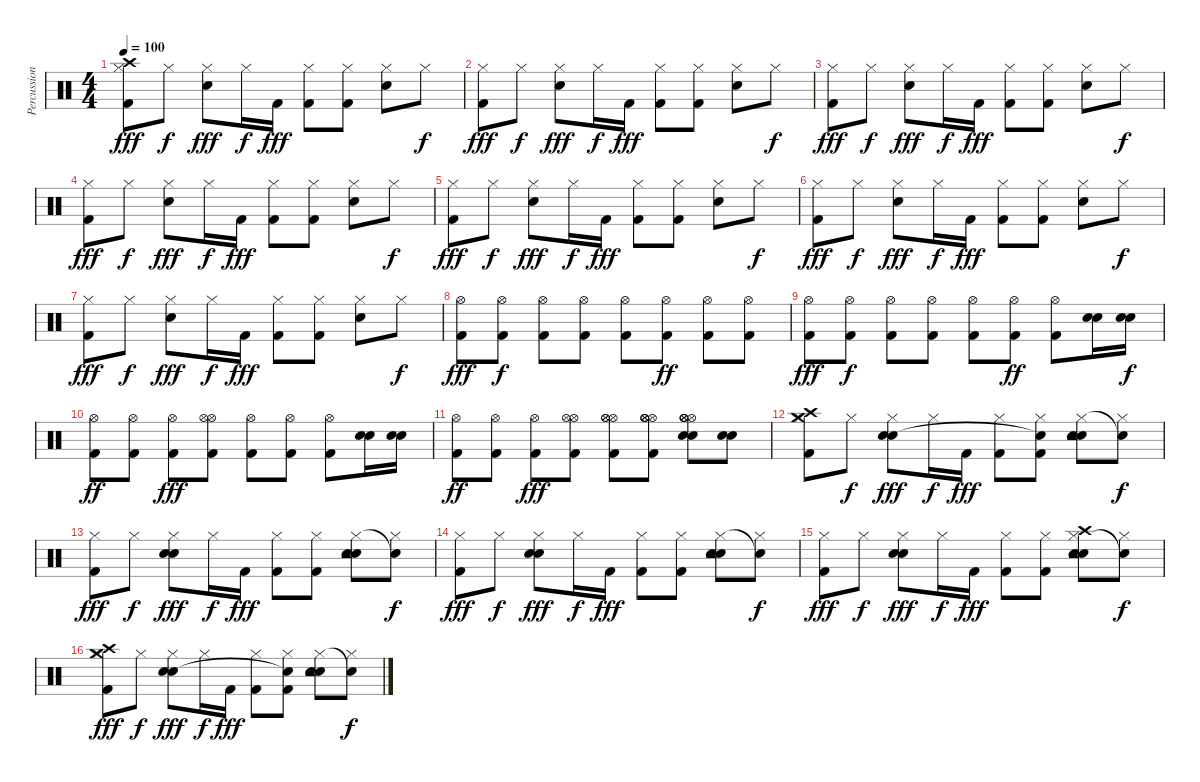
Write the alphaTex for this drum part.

\track ("Percussion" "Percussion") {instrument percussion}
\staff {score}
\articulation defaults
\ts (4 4)
\tempo 100
\clef neutral
\ks c
("Kick (hit) 2" "Hi-Hat (closed)" "Crash high (hit)").8{dy fff} "Hi-Hat (closed)".8{dy f} ("Electric Snare (hit)" "Hi-Hat (closed)").8{dy fff} "Hi-Hat (closed)".16{dy f} "Kick (hit) 2".16{dy fff} ("Kick (hit) 2" "Hi-Hat (closed)").8 ("Kick (hit) 2" "Hi-Hat (closed)").8 ("Electric Snare (hit)" "Hi-Hat (closed)").8 "Hi-Hat (closed)".8{dy f} |
("Kick (hit) 2" "Hi-Hat (closed)").8{dy fff} "Hi-Hat (closed)".8{dy f} ("Electric Snare (hit)" "Hi-Hat (closed)").8{dy fff} "Hi-Hat (closed)".16{dy f} "Kick (hit) 2".16{dy fff} ("Kick (hit) 2" "Hi-Hat (closed)").8 ("Kick (hit) 2" "Hi-Hat (closed)").8 ("Electric Snare (hit)" "Hi-Hat (closed)").8 "Hi-Hat (closed)".8{dy f} |
("Kick (hit) 2" "Hi-Hat (closed)").8{dy fff} "Hi-Hat (closed)".8{dy f} ("Electric Snare (hit)" "Hi-Hat (closed)").8{dy fff} "Hi-Hat (closed)".16{dy f} "Kick (hit) 2".16{dy fff} ("Kick (hit) 2" "Hi-Hat (closed)").8 ("Kick (hit) 2" "Hi-Hat (closed)").8 ("Electric Snare (hit)" "Hi-Hat (closed)").8 "Hi-Hat (closed)".8{dy f} |
("Kick (hit) 2" "Hi-Hat (closed)").8{dy fff} "Hi-Hat (closed)".8{dy f} ("Electric Snare (hit)" "Hi-Hat (closed)").8{dy fff} "Hi-Hat (closed)".16{dy f} "Kick (hit) 2".16{dy fff} ("Kick (hit) 2" "Hi-Hat (closed)").8 ("Kick (hit) 2" "Hi-Hat (closed)").8 ("Electric Snare (hit)" "Hi-Hat (closed)").8 "Hi-Hat (closed)".8{dy f} |
("Kick (hit) 2" "Hi-Hat (closed)").8{dy fff} "Hi-Hat (closed)".8{dy f} ("Electric Snare (hit)" "Hi-Hat (closed)").8{dy fff} "Hi-Hat (closed)".16{dy f} "Kick (hit) 2".16{dy fff} ("Kick (hit) 2" "Hi-Hat (closed)").8 ("Kick (hit) 2" "Hi-Hat (closed)").8 ("Electric Snare (hit)" "Hi-Hat (closed)").8 "Hi-Hat (closed)".8{dy f} |
("Kick (hit) 2" "Hi-Hat (closed)").8{dy fff} "Hi-Hat (closed)".8{dy f} ("Electric Snare (hit)" "Hi-Hat (closed)").8{dy fff} "Hi-Hat (closed)".16{dy f} "Kick (hit) 2".16{dy fff} ("Kick (hit) 2" "Hi-Hat (closed)").8 ("Kick (hit) 2" "Hi-Hat (closed)").8 ("Electric Snare (hit)" "Hi-Hat (closed)").8 "Hi-Hat (closed)".8{dy f} |
("Kick (hit) 2" "Hi-Hat (closed)").8{dy fff} "Hi-Hat (closed)".8{dy f} ("Electric Snare (hit)" "Hi-Hat (closed)").8{dy fff} "Hi-Hat (closed)".16{dy f} "Kick (hit) 2".16{dy fff} ("Kick (hit) 2" "Hi-Hat (closed)").8 ("Kick (hit) 2" "Hi-Hat (closed)").8 ("Electric Snare (hit)" "Hi-Hat (closed)").8 "Hi-Hat (closed)".8{dy f} |
("Kick (hit) 2" "Hi-Hat (open)").8{dy fff} ("Kick (hit) 2" "Hi-Hat (open)").8{dy f} ("Kick (hit) 2" "Hi-Hat (open)").8 ("Kick (hit) 2" "Hi-Hat (open)").8 ("Kick (hit) 2" "Hi-Hat (open)").8 ("Kick (hit) 2" "Hi-Hat (open)").8{dy ff} ("Kick (hit) 2" "Hi-Hat (open)").8 ("Kick (hit) 2" "Hi-Hat (open)").8 |
("Kick (hit) 2" "Hi-Hat (open)").8{dy fff} ("Kick (hit) 2" "Hi-Hat (open)").8{dy f} ("Kick (hit) 2" "Hi-Hat (open)").8 ("Kick (hit) 2" "Hi-Hat (open)").8 ("Kick (hit) 2" "Hi-Hat (open)").8 ("Kick (hit) 2" "Hi-Hat (open)").8{dy ff} ("Kick (hit) 2" "Hi-Hat (open)").8 ("Electric Snare (hit)" "Electric Snare (hit)").16 ("Electric Snare (hit)" "Electric Snare (hit)").16{dy f} |
("Kick (hit) 2" "Hi-Hat (open)").8{dy ff} ("Kick (hit) 2" "Hi-Hat (open)").8 ("Kick (hit) 2" "Hi-Hat (open)").8{dy fff} ("Kick (hit) 2" "Hi-Hat (open)" "Hi-Hat (open)").8 ("Kick (hit) 2" "Hi-Hat (open)").8 ("Kick (hit) 2" "Hi-Hat (open)").8 ("Kick (hit) 2" "Hi-Hat (open)").8 ("Electric Snare (hit)" "Electric Snare (hit)").16 ("Electric Snare (hit)" "Electric Snare (hit)").16 |
("Kick (hit) 2" "Hi-Hat (open)").8{dy ff} ("Kick (hit) 2" "Hi-Hat (open)").8 ("Kick (hit) 2" "Hi-Hat (open)").8{dy fff} ("Kick (hit) 2" "Hi-Hat (open)" "Hi-Hat (open)").8 ("Kick (hit) 2" "Hi-Hat (open)" "Hi-Hat (open)" "Hi-Hat (open)").8 ("Kick (hit) 2" "Hi-Hat (open)" "Hi-Hat (open)" "Hi-Hat (open)" "Hi-Hat (open)").8 ("Electric Snare (hit)" "Electric Snare (hit)" "Hi-Hat (open)" "Hi-Hat (open)" "Hi-Hat (open)" "Hi-Hat (open)").8 ("Electric Snare (hit)" "Electric Snare (hit)").8 |
("Kick (hit) 2" "Hi-Hat (closed)" "Crash high (hit)" "Crash medium (hit)").8 "Hi-Hat (closed)".8{dy f} ("Electric Snare (hit)" "Hi-Hat (closed)" "Hand Clap (hit)").8{dy fff} "Hi-Hat (closed)".16{dy f} "Kick (hit) 2".16{dy fff} ("Kick (hit) 2" "Hi-Hat (closed)").8 ("Kick (hit) 2" "Hi-Hat (closed)" "Snare (hit)"{t}).8 ("Electric Snare (hit)" "Hi-Hat (closed)" "Hand Clap (hit)" "Tambourine (hit)").8 ("Hi-Hat (closed)" "Snare (hit)"{t}).8{dy f} |
("Kick (hit) 2" "Hi-Hat (closed)").8{dy fff} "Hi-Hat (closed)".8{dy f} ("Electric Snare (hit)" "Hi-Hat (closed)" "Hand Clap (hit)").8{dy fff} "Hi-Hat (closed)".16{dy f} "Kick (hit) 2".16{dy fff} ("Kick (hit) 2" "Hi-Hat (closed)").8 ("Kick (hit) 2" "Hi-Hat (closed)").8 ("Electric Snare (hit)" "Hi-Hat (closed)" "Hand Clap (hit)" "Tambourine (hit)").8 ("Hi-Hat (closed)" "Snare (hit)"{t}).8{dy f} |
("Kick (hit) 2" "Hi-Hat (closed)").8{dy fff} "Hi-Hat (closed)".8{dy f} ("Electric Snare (hit)" "Hi-Hat (closed)" "Hand Clap (hit)").8{dy fff} "Hi-Hat (closed)".16{dy f} "Kick (hit) 2".16{dy fff} ("Kick (hit) 2" "Hi-Hat (closed)").8 ("Kick (hit) 2" "Hi-Hat (closed)").8 ("Electric Snare (hit)" "Hi-Hat (closed)" "Hand Clap (hit)" "Tambourine (hit)").8 ("Hi-Hat (closed)" "Snare (hit)"{t}).8{dy f} |
("Kick (hit) 2" "Hi-Hat (closed)").8{dy fff} "Hi-Hat (closed)".8{dy f} ("Electric Snare (hit)" "Hi-Hat (closed)" "Hand Clap (hit)").8{dy fff} "Hi-Hat (closed)".16{dy f} "Kick (hit) 2".16{dy fff} ("Kick (hit) 2" "Hi-Hat (closed)").8 ("Kick (hit) 2" "Hi-Hat (closed)").8 ("Electric Snare (hit)" "Hi-Hat (closed)" "Hand Clap (hit)" "Tambourine (hit)" "Crash high (hit)").8 ("Hi-Hat (closed)" "Snare (hit)"{t}).8{dy f} |
("Kick (hit) 2" "Hi-Hat (closed)" "Crash high (hit)" "Crash medium (hit)").8{dy fff} "Hi-Hat (closed)".8{dy f} ("Electric Snare (hit)" "Hi-Hat (closed)" "Hand Clap (hit)").8{dy fff} "Hi-Hat (closed)".16{dy f} "Kick (hit) 2".16{dy fff} ("Kick (hit) 2" "Hi-Hat (closed)").8 ("Kick (hit) 2" "Hi-Hat (closed)" "Snare (hit)"{t}).8 ("Electric Snare (hit)" "Hi-Hat (closed)" "Hand Clap (hit)" "Tambourine (hit)").8 ("Hi-Hat (closed)" "Snare (hit)"{t}).8{dy f}
